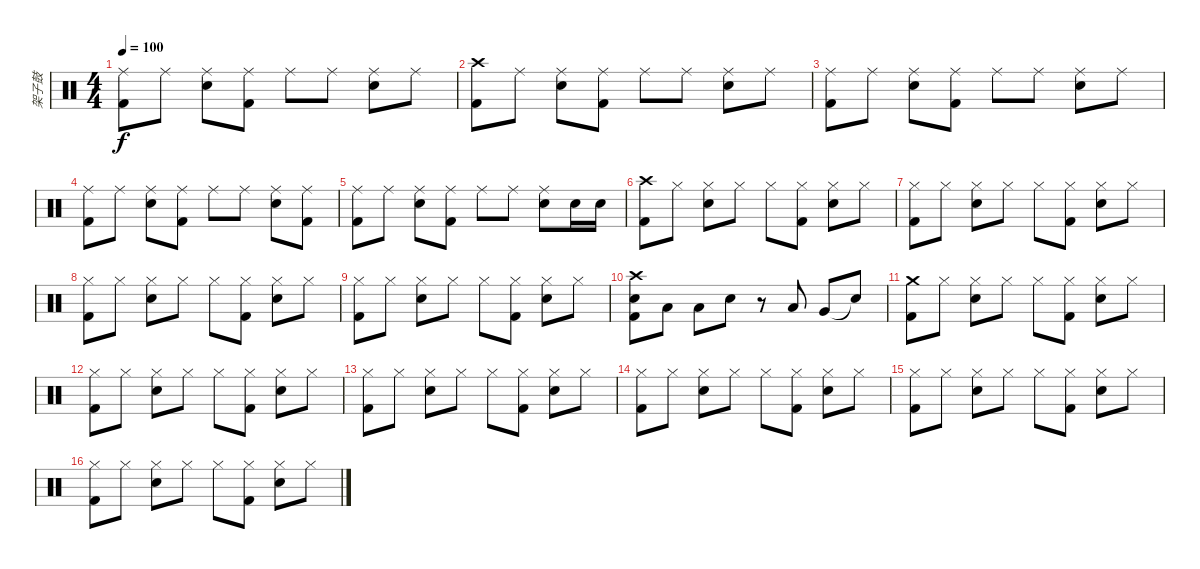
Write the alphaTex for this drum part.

\track ("架子鼓" "架子鼓") {instrument percussion}
\staff {score}
\articulation defaults
\ts (4 4)
\tempo 100
\clef neutral
\ks c
("Ride (middle)" "Kick (hit) 2").8{dy f} "Ride (middle)".8 ("Ride (middle)" "Snare (hit) 2").8 ("Ride (middle)" "Kick (hit) 2").8 "Ride (middle)".8 "Ride (middle)".8 ("Ride (middle)" "Snare (hit) 2").8 "Ride (middle)".8 |
("Crash high (hit)" "Kick (hit) 2").8 "Ride (middle)".8 ("Ride (middle)" "Snare (hit) 2").8 ("Ride (middle)" "Kick (hit) 2").8 "Ride (middle)".8 "Ride (middle)".8 ("Ride (middle)" "Snare (hit) 2").8 "Ride (middle)".8 |
("Ride (middle)" "Kick (hit) 2").8 "Ride (middle)".8 ("Ride (middle)" "Snare (hit) 2").8 ("Ride (middle)" "Kick (hit) 2").8 "Ride (middle)".8 "Ride (middle)".8 ("Ride (middle)" "Snare (hit) 2").8 "Ride (middle)".8 |
("Ride (middle)" "Kick (hit) 2").8 "Ride (middle)".8 ("Ride (middle)" "Snare (hit) 2").8 ("Ride (middle)" "Kick (hit) 2").8 "Ride (middle)".8 "Ride (middle)".8 ("Ride (middle)" "Snare (hit) 2").8 ("Ride (middle)" "Kick (hit) 2").8 |
("Ride (middle)" "Kick (hit) 2").8 "Ride (middle)".8 ("Ride (middle)" "Snare (hit) 2").8 ("Ride (middle)" "Kick (hit) 2").8 "Ride (middle)".8 "Ride (middle)".8 ("Ride (middle)" "Snare (hit) 2").8 "Snare (hit) 2".16 "Snare (hit) 2".16 |
("Crash high (hit)" "Kick (hit) 2").8 "Hi-Hat (closed)".8 ("Hi-Hat (closed)" "Snare (hit) 2").8 "Hi-Hat (closed)".8 "Hi-Hat (closed)".8 ("Hi-Hat (closed)" "Kick (hit) 2").8 ("Hi-Hat (closed)" "Snare (hit) 2").8 "Hi-Hat (closed)".8 |
("Hi-Hat (closed)" "Kick (hit) 2").8 "Hi-Hat (closed)".8 ("Hi-Hat (closed)" "Snare (hit) 2").8 "Hi-Hat (closed)".8 "Hi-Hat (closed)".8 ("Hi-Hat (closed)" "Kick (hit) 2").8 ("Hi-Hat (closed)" "Snare (hit) 2").8 "Hi-Hat (closed)".8 |
("Hi-Hat (closed)" "Kick (hit) 2").8 "Hi-Hat (closed)".8 ("Hi-Hat (closed)" "Snare (hit) 2").8 "Hi-Hat (closed)".8 "Hi-Hat (closed)".8 ("Hi-Hat (closed)" "Kick (hit) 2").8 ("Hi-Hat (closed)" "Snare (hit) 2").8 "Hi-Hat (closed)".8 |
("Hi-Hat (closed)" "Kick (hit) 2").8 "Hi-Hat (closed)".8 ("Hi-Hat (closed)" "Snare (hit) 2").8 "Hi-Hat (closed)".8 "Hi-Hat (closed)".8 ("Hi-Hat (closed)" "Kick (hit) 2").8 ("Hi-Hat (closed)" "Snare (hit) 2").8 "Hi-Hat (closed)".8 |
("Crash high (hit)" "Snare (hit) 2" "Kick (hit) 2").8 "Low Tom (hit)".8 "Low Tom (hit)".8 "Snare (hit) 2".8 r.8 "Low Tom (hit)".8 "Very Low Tom (hit)".8 "Snare (hit)"{t}.8 |
("Crash medium (hit)" "Kick (hit) 2").8 "Hi-Hat (closed)".8 ("Hi-Hat (closed)" "Snare (hit) 2").8 "Hi-Hat (closed)".8 "Hi-Hat (closed)".8 ("Hi-Hat (closed)" "Kick (hit) 2").8 ("Hi-Hat (closed)" "Snare (hit) 2").8 "Hi-Hat (closed)".8 |
("Hi-Hat (closed)" "Kick (hit) 2").8 "Hi-Hat (closed)".8 ("Hi-Hat (closed)" "Snare (hit) 2").8 "Hi-Hat (closed)".8 "Hi-Hat (closed)".8 ("Hi-Hat (closed)" "Kick (hit) 2").8 ("Hi-Hat (closed)" "Snare (hit) 2").8 "Hi-Hat (closed)".8 |
("Hi-Hat (closed)" "Kick (hit) 2").8 "Hi-Hat (closed)".8 ("Hi-Hat (closed)" "Snare (hit) 2").8 "Hi-Hat (closed)".8 "Hi-Hat (closed)".8 ("Hi-Hat (closed)" "Kick (hit) 2").8 ("Hi-Hat (closed)" "Snare (hit) 2").8 "Hi-Hat (closed)".8 |
("Hi-Hat (closed)" "Kick (hit) 2").8 "Hi-Hat (closed)".8 ("Hi-Hat (closed)" "Snare (hit) 2").8 "Hi-Hat (closed)".8 "Hi-Hat (closed)".8 ("Hi-Hat (closed)" "Kick (hit) 2").8 ("Hi-Hat (closed)" "Snare (hit) 2").8 "Hi-Hat (closed)".8 |
("Hi-Hat (closed)" "Kick (hit) 2").8 "Hi-Hat (closed)".8 ("Hi-Hat (closed)" "Snare (hit) 2").8 "Hi-Hat (closed)".8 "Hi-Hat (closed)".8 ("Hi-Hat (closed)" "Kick (hit) 2").8 ("Hi-Hat (closed)" "Snare (hit) 2").8 "Hi-Hat (closed)".8 |
("Hi-Hat (closed)" "Kick (hit) 2").8 "Hi-Hat (closed)".8 ("Hi-Hat (closed)" "Snare (hit) 2").8 "Hi-Hat (closed)".8 "Hi-Hat (closed)".8 ("Hi-Hat (closed)" "Kick (hit) 2").8 ("Hi-Hat (closed)" "Snare (hit) 2").8 "Hi-Hat (closed)".8
